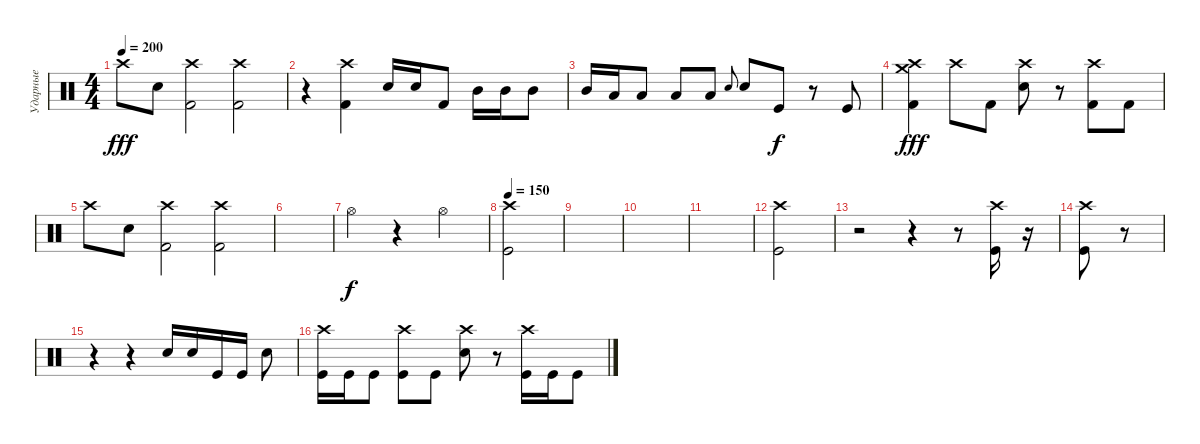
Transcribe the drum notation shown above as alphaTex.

\track ("Ударные" "Ударные") {instrument percussion}
\staff {score}
\articulation defaults
\ts (4 4)
\tempo 200
\clef neutral
\ks c "Crash high (hit)".8{dy fff} "Electric Snare (hit)".8
("Crash high (hit)" "Kick (hit) 2").2 ("Crash high (hit)" "Kick (hit) 2").2 |
r.4 ("Crash high (hit)" "Kick (hit) 2").4 "Electric Snare (hit)".16 "Electric Snare (hit)".16 "Kick (hit) 2".8 "Mid Tom (hit)".16 "Mid Tom (hit)".16 "Mid Tom (hit)".8 |
"Mid Tom (hit)".16 "Low Tom (hit)".16 "Low Tom (hit)".8 "Low Floor Tom (hit)".8 "Low Floor Tom (hit)".8 "Electric Snare (hit)".8{gr onbeat} "Electric Snare (hit)".8 "Kick (hit)".8{dy f} r.8 "Kick (hit)".8 |
("Crash high (hit)" "Kick (hit) 2" "Crash medium (hit)").4{dy fff} "Crash high (hit)".8 "Kick (hit) 2".8 ("Crash high (hit)" "Electric Snare (hit)").8 r.8 ("Crash high (hit)" "Kick (hit) 2").8 "Kick (hit) 2".8 |
"Crash high (hit)".8 "Electric Snare (hit)".8 ("Crash high (hit)" "Kick (hit) 2").2 ("Crash high (hit)" "Kick (hit) 2").2 |
|
"Hi-Hat (open)".4{dy f} r.4 "Hi-Hat (open)".4 |
\tempo 150
("Kick (hit)" "Crash high (hit)").2 |
|
|
|
("Kick (hit)" "Crash high (hit)").2 |
r.2 r.4 r.8 ("Kick (hit)" "Crash high (hit)").16 r.16 |
("Kick (hit)" "Crash high (hit)").8 r.8 |
r.4 r.4 "Snare (hit) 2".16 "Snare (hit) 2".16 "Kick (hit)".16 "Kick (hit)".16 "Snare (hit) 2".8 |
("Kick (hit)" "Crash high (hit)").16 "Kick (hit)".16 "Kick (hit)".8 ("Crash high (hit)" "Kick (hit)").8 "Kick (hit)".8 ("Snare (hit) 2" "Crash high (hit)").8 r.8 ("Kick (hit)" "Crash high (hit)").16 "Kick (hit)".16 "Kick (hit)".8
